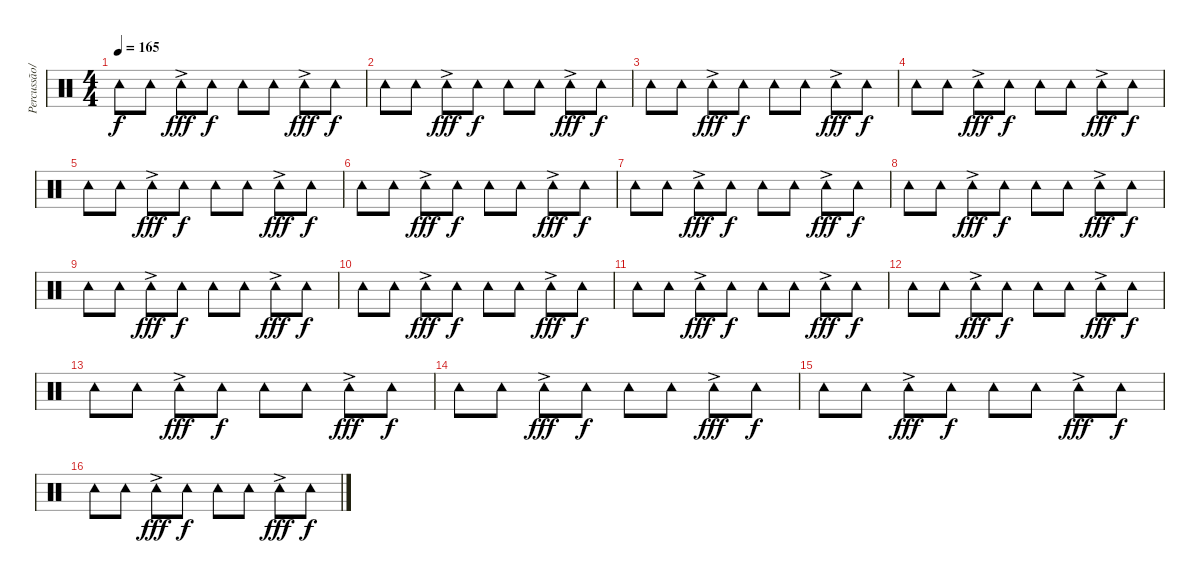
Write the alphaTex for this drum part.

\track ("Percussão/DJ" "Percussão/") {instrument percussion}
\staff {score}
\articulation defaults
\ts (4 4)
\tempo 165
\clef neutral
\ks c "Tambourine (hit)".8{dy f} "Tambourine (hit)".8 "Tambourine (hit)"{ac}.8{dy fff} "Tambourine (hit)".8{dy f} "Tambourine (hit)".8 "Tambourine (hit)".8 "Tambourine (hit)"{ac}.8{dy fff} "Tambourine (hit)".8{dy f}
|
"Tambourine (hit)".8 "Tambourine (hit)".8 "Tambourine (hit)"{ac}.8{dy fff} "Tambourine (hit)".8{dy f} "Tambourine (hit)".8 "Tambourine (hit)".8 "Tambourine (hit)"{ac}.8{dy fff} "Tambourine (hit)".8{dy f} |
"Tambourine (hit)".8 "Tambourine (hit)".8 "Tambourine (hit)"{ac}.8{dy fff} "Tambourine (hit)".8{dy f} "Tambourine (hit)".8 "Tambourine (hit)".8 "Tambourine (hit)"{ac}.8{dy fff} "Tambourine (hit)".8{dy f} |
"Tambourine (hit)".8 "Tambourine (hit)".8 "Tambourine (hit)"{ac}.8{dy fff} "Tambourine (hit)".8{dy f} "Tambourine (hit)".8 "Tambourine (hit)".8 "Tambourine (hit)"{ac}.8{dy fff} "Tambourine (hit)".8{dy f} |
"Tambourine (hit)".8 "Tambourine (hit)".8 "Tambourine (hit)"{ac}.8{dy fff} "Tambourine (hit)".8{dy f} "Tambourine (hit)".8 "Tambourine (hit)".8 "Tambourine (hit)"{ac}.8{dy fff} "Tambourine (hit)".8{dy f} |
"Tambourine (hit)".8 "Tambourine (hit)".8 "Tambourine (hit)"{ac}.8{dy fff} "Tambourine (hit)".8{dy f} "Tambourine (hit)".8 "Tambourine (hit)".8 "Tambourine (hit)"{ac}.8{dy fff} "Tambourine (hit)".8{dy f} |
"Tambourine (hit)".8 "Tambourine (hit)".8 "Tambourine (hit)"{ac}.8{dy fff} "Tambourine (hit)".8{dy f} "Tambourine (hit)".8 "Tambourine (hit)".8 "Tambourine (hit)"{ac}.8{dy fff} "Tambourine (hit)".8{dy f} |
"Tambourine (hit)".8 "Tambourine (hit)".8 "Tambourine (hit)"{ac}.8{dy fff} "Tambourine (hit)".8{dy f} "Tambourine (hit)".8 "Tambourine (hit)".8 "Tambourine (hit)"{ac}.8{dy fff} "Tambourine (hit)".8{dy f} |
"Tambourine (hit)".8 "Tambourine (hit)".8 "Tambourine (hit)"{ac}.8{dy fff} "Tambourine (hit)".8{dy f} "Tambourine (hit)".8 "Tambourine (hit)".8 "Tambourine (hit)"{ac}.8{dy fff} "Tambourine (hit)".8{dy f} |
"Tambourine (hit)".8 "Tambourine (hit)".8 "Tambourine (hit)"{ac}.8{dy fff} "Tambourine (hit)".8{dy f} "Tambourine (hit)".8 "Tambourine (hit)".8 "Tambourine (hit)"{ac}.8{dy fff} "Tambourine (hit)".8{dy f} |
"Tambourine (hit)".8 "Tambourine (hit)".8 "Tambourine (hit)"{ac}.8{dy fff} "Tambourine (hit)".8{dy f} "Tambourine (hit)".8 "Tambourine (hit)".8 "Tambourine (hit)"{ac}.8{dy fff} "Tambourine (hit)".8{dy f} |
"Tambourine (hit)".8 "Tambourine (hit)".8 "Tambourine (hit)"{ac}.8{dy fff} "Tambourine (hit)".8{dy f} "Tambourine (hit)".8 "Tambourine (hit)".8 "Tambourine (hit)"{ac}.8{dy fff} "Tambourine (hit)".8{dy f} |
"Tambourine (hit)".8 "Tambourine (hit)".8 "Tambourine (hit)"{ac}.8{dy fff} "Tambourine (hit)".8{dy f} "Tambourine (hit)".8 "Tambourine (hit)".8 "Tambourine (hit)"{ac}.8{dy fff} "Tambourine (hit)".8{dy f} |
"Tambourine (hit)".8 "Tambourine (hit)".8 "Tambourine (hit)"{ac}.8{dy fff} "Tambourine (hit)".8{dy f} "Tambourine (hit)".8 "Tambourine (hit)".8 "Tambourine (hit)"{ac}.8{dy fff} "Tambourine (hit)".8{dy f} |
"Tambourine (hit)".8 "Tambourine (hit)".8 "Tambourine (hit)"{ac}.8{dy fff} "Tambourine (hit)".8{dy f} "Tambourine (hit)".8 "Tambourine (hit)".8 "Tambourine (hit)"{ac}.8{dy fff} "Tambourine (hit)".8{dy f} |
"Tambourine (hit)".8 "Tambourine (hit)".8 "Tambourine (hit)"{ac}.8{dy fff} "Tambourine (hit)".8{dy f} "Tambourine (hit)".8 "Tambourine (hit)".8 "Tambourine (hit)"{ac}.8{dy fff} "Tambourine (hit)".8{dy f}
